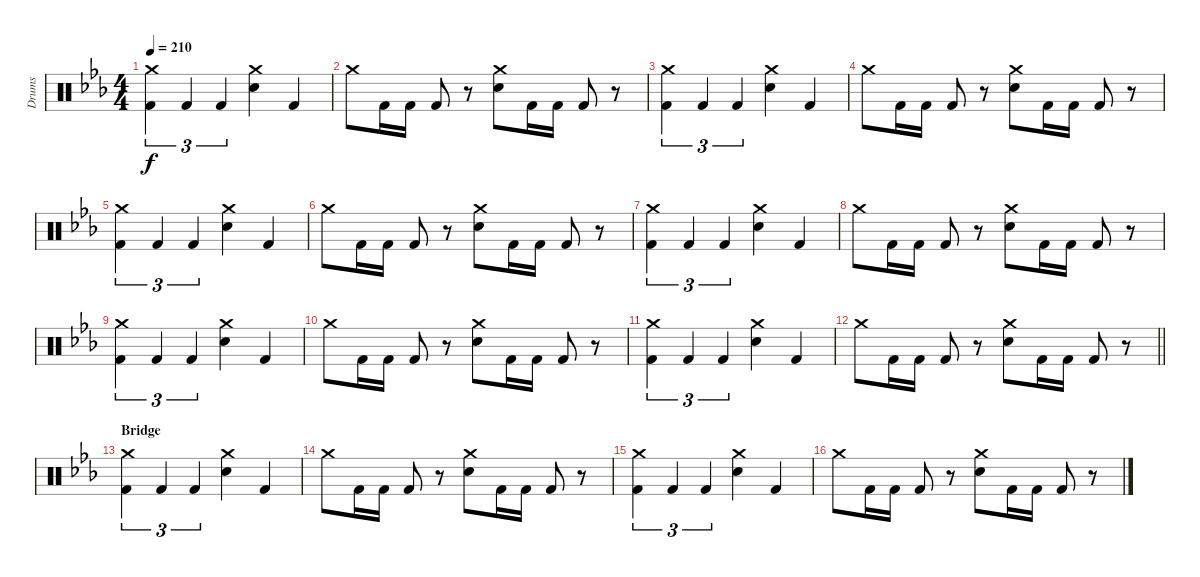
\track ("Drums" "Drums") {instrument percussion}
\staff {score}
\articulation defaults
\ts (4 4)
\tempo 210
\clef neutral
\ks cminor
("Crash medium (hit)" "Kick (hit) 2").4{tu (3 2) dy f} "Kick (hit) 2".4{tu (3 2)} "Kick (hit) 2".4{tu (3 2)} ("Crash medium (hit)" "Electric Snare (hit)").4 "Kick (hit) 2".4 |
"Crash medium (hit)".8 "Kick (hit) 2".16 "Kick (hit) 2".16 "Kick (hit) 2".8 r.8 ("Crash medium (hit)" "Electric Snare (hit)").8 "Kick (hit) 2".16 "Kick (hit) 2".16 "Kick (hit) 2".8 r.8 |
("Crash medium (hit)" "Kick (hit) 2").4{tu (3 2)} "Kick (hit) 2".4{tu (3 2)} "Kick (hit) 2".4{tu (3 2)} ("Crash medium (hit)" "Electric Snare (hit)").4 "Kick (hit) 2".4 |
"Crash medium (hit)".8 "Kick (hit) 2".16 "Kick (hit) 2".16 "Kick (hit) 2".8 r.8 ("Crash medium (hit)" "Electric Snare (hit)").8 "Kick (hit) 2".16 "Kick (hit) 2".16 "Kick (hit) 2".8 r.8 |
("Crash medium (hit)" "Kick (hit) 2").4{tu (3 2)} "Kick (hit) 2".4{tu (3 2)} "Kick (hit) 2".4{tu (3 2)} ("Crash medium (hit)" "Electric Snare (hit)").4 "Kick (hit) 2".4 |
"Crash medium (hit)".8 "Kick (hit) 2".16 "Kick (hit) 2".16 "Kick (hit) 2".8 r.8 ("Crash medium (hit)" "Electric Snare (hit)").8 "Kick (hit) 2".16 "Kick (hit) 2".16 "Kick (hit) 2".8 r.8 |
("Crash medium (hit)" "Kick (hit) 2").4{tu (3 2)} "Kick (hit) 2".4{tu (3 2)} "Kick (hit) 2".4{tu (3 2)} ("Crash medium (hit)" "Electric Snare (hit)").4 "Kick (hit) 2".4 |
"Crash medium (hit)".8 "Kick (hit) 2".16 "Kick (hit) 2".16 "Kick (hit) 2".8 r.8 ("Crash medium (hit)" "Electric Snare (hit)").8 "Kick (hit) 2".16 "Kick (hit) 2".16 "Kick (hit) 2".8 r.8 |
("Crash medium (hit)" "Kick (hit) 2").4{tu (3 2)} "Kick (hit) 2".4{tu (3 2)} "Kick (hit) 2".4{tu (3 2)} ("Crash medium (hit)" "Electric Snare (hit)").4 "Kick (hit) 2".4 |
"Crash medium (hit)".8 "Kick (hit) 2".16 "Kick (hit) 2".16 "Kick (hit) 2".8 r.8 ("Crash medium (hit)" "Electric Snare (hit)").8 "Kick (hit) 2".16 "Kick (hit) 2".16 "Kick (hit) 2".8 r.8 |
("Crash medium (hit)" "Kick (hit) 2").4{tu (3 2)} "Kick (hit) 2".4{tu (3 2)} "Kick (hit) 2".4{tu (3 2)} ("Crash medium (hit)" "Electric Snare (hit)").4 "Kick (hit) 2".4 |
\barLineRight lightlight "Crash medium (hit)".8 "Kick (hit) 2".16 "Kick (hit) 2".16 "Kick (hit) 2".8
r.8 ("Crash medium (hit)" "Electric Snare (hit)").8 "Kick (hit) 2".16 "Kick (hit) 2".16 "Kick (hit) 2".8 r.8 |
\section ("" "Bridge")
("Crash medium (hit)" "Kick (hit) 2").4{tu (3 2)} "Kick (hit) 2".4{tu (3 2)} "Kick (hit) 2".4{tu (3 2)} ("Crash medium (hit)" "Electric Snare (hit)").4 "Kick (hit) 2".4 |
"Crash medium (hit)".8 "Kick (hit) 2".16 "Kick (hit) 2".16 "Kick (hit) 2".8 r.8 ("Crash medium (hit)" "Electric Snare (hit)").8 "Kick (hit) 2".16 "Kick (hit) 2".16 "Kick (hit) 2".8 r.8 |
("Crash medium (hit)" "Kick (hit) 2").4{tu (3 2)} "Kick (hit) 2".4{tu (3 2)} "Kick (hit) 2".4{tu (3 2)} ("Crash medium (hit)" "Electric Snare (hit)").4 "Kick (hit) 2".4 |
"Crash medium (hit)".8 "Kick (hit) 2".16 "Kick (hit) 2".16 "Kick (hit) 2".8 r.8 ("Crash medium (hit)" "Electric Snare (hit)").8 "Kick (hit) 2".16 "Kick (hit) 2".16 "Kick (hit) 2".8 r.8
